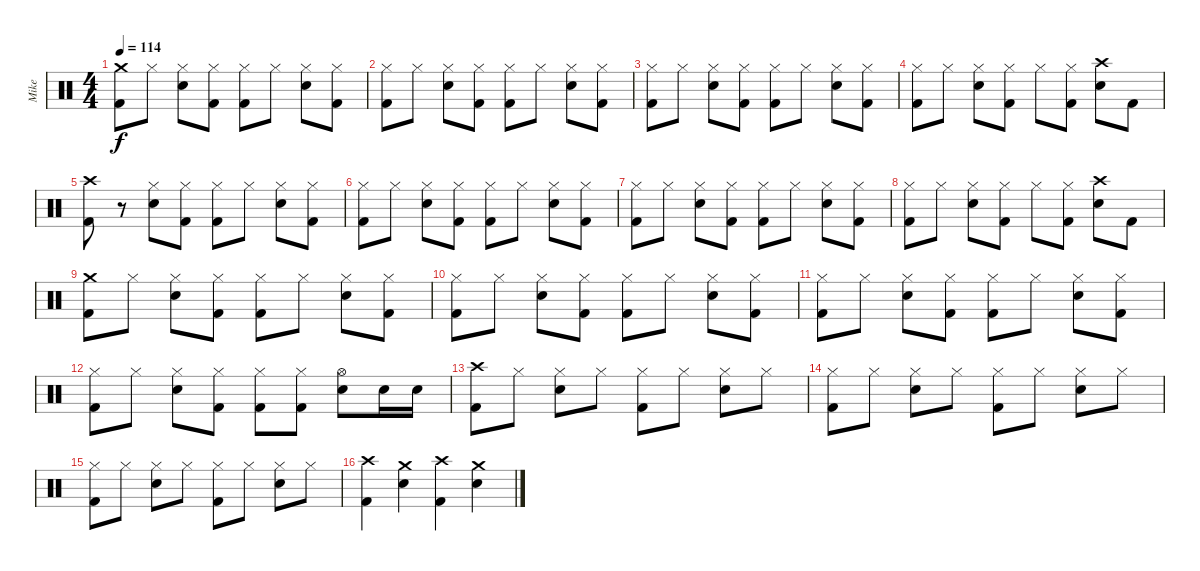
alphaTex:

\track ("Mike" "Mike") {instrument percussion}
\staff {score}
\articulation defaults
\ts (4 4)
\tempo 114
\clef neutral
\ks c
("Crash medium (hit)" "Kick (hit) 2").8{dy f} "Hi-Hat (closed)".8 ("Hi-Hat (closed)" "Electric Snare (hit)").8 ("Hi-Hat (closed)" "Kick (hit) 2").8 ("Hi-Hat (closed)" "Kick (hit) 2").8 "Hi-Hat (closed)".8 ("Hi-Hat (closed)" "Electric Snare (hit)").8 ("Hi-Hat (closed)" "Kick (hit) 2").8 |
("Hi-Hat (closed)" "Kick (hit) 2").8 "Hi-Hat (closed)".8 ("Hi-Hat (closed)" "Electric Snare (hit)").8 ("Hi-Hat (closed)" "Kick (hit) 2").8 ("Hi-Hat (closed)" "Kick (hit) 2").8 "Hi-Hat (closed)".8 ("Hi-Hat (closed)" "Electric Snare (hit)").8 ("Hi-Hat (closed)" "Kick (hit) 2").8 |
("Hi-Hat (closed)" "Kick (hit) 2").8 "Hi-Hat (closed)".8 ("Hi-Hat (closed)" "Electric Snare (hit)").8 ("Hi-Hat (closed)" "Kick (hit) 2").8 ("Hi-Hat (closed)" "Kick (hit) 2").8 "Hi-Hat (closed)".8 ("Hi-Hat (closed)" "Electric Snare (hit)").8 ("Hi-Hat (closed)" "Kick (hit) 2").8 |
("Hi-Hat (closed)" "Kick (hit) 2").8 "Hi-Hat (closed)".8 ("Hi-Hat (closed)" "Electric Snare (hit)").8 ("Hi-Hat (closed)" "Kick (hit) 2").8 "Hi-Hat (closed)".8 ("Hi-Hat (closed)" "Kick (hit) 2").8 ("Crash high (hit)" "Electric Snare (hit)").8 "Kick (hit) 2".8 |
("Crash high (hit)" "Kick (hit) 2").8 r.8 ("Hi-Hat (closed)" "Electric Snare (hit)").8 ("Hi-Hat (closed)" "Kick (hit) 2").8 ("Hi-Hat (closed)" "Kick (hit) 2").8 "Hi-Hat (closed)".8 ("Hi-Hat (closed)" "Electric Snare (hit)").8 ("Hi-Hat (closed)" "Kick (hit) 2").8 |
("Hi-Hat (closed)" "Kick (hit) 2").8 "Hi-Hat (closed)".8 ("Hi-Hat (closed)" "Electric Snare (hit)").8 ("Hi-Hat (closed)" "Kick (hit) 2").8 ("Hi-Hat (closed)" "Kick (hit) 2").8 "Hi-Hat (closed)".8 ("Hi-Hat (closed)" "Electric Snare (hit)").8 ("Hi-Hat (closed)" "Kick (hit) 2").8 |
("Hi-Hat (closed)" "Kick (hit) 2").8 "Hi-Hat (closed)".8 ("Hi-Hat (closed)" "Electric Snare (hit)").8 ("Hi-Hat (closed)" "Kick (hit) 2").8 ("Hi-Hat (closed)" "Kick (hit) 2").8 "Hi-Hat (closed)".8 ("Hi-Hat (closed)" "Electric Snare (hit)").8 ("Hi-Hat (closed)" "Kick (hit) 2").8 |
("Hi-Hat (closed)" "Kick (hit) 2").8 "Hi-Hat (closed)".8 ("Hi-Hat (closed)" "Electric Snare (hit)").8 ("Hi-Hat (closed)" "Kick (hit) 2").8 "Hi-Hat (closed)".8 ("Hi-Hat (closed)" "Kick (hit) 2").8 ("Crash high (hit)" "Electric Snare (hit)").8 "Kick (hit) 2".8 |
("Crash medium (hit)" "Kick (hit) 2").8 "Hi-Hat (closed)".8 ("Hi-Hat (closed)" "Electric Snare (hit)").8 ("Hi-Hat (closed)" "Kick (hit) 2").8 ("Hi-Hat (closed)" "Kick (hit) 2").8 "Hi-Hat (closed)".8 ("Hi-Hat (closed)" "Electric Snare (hit)").8 ("Hi-Hat (closed)" "Kick (hit) 2").8 |
("Hi-Hat (closed)" "Kick (hit) 2").8 "Hi-Hat (closed)".8 ("Hi-Hat (closed)" "Electric Snare (hit)").8 ("Hi-Hat (closed)" "Kick (hit) 2").8 ("Hi-Hat (closed)" "Kick (hit) 2").8 "Hi-Hat (closed)".8 ("Hi-Hat (closed)" "Electric Snare (hit)").8 ("Hi-Hat (closed)" "Kick (hit) 2").8 |
("Hi-Hat (closed)" "Kick (hit) 2").8 "Hi-Hat (closed)".8 ("Hi-Hat (closed)" "Electric Snare (hit)").8 ("Hi-Hat (closed)" "Kick (hit) 2").8 ("Hi-Hat (closed)" "Kick (hit) 2").8 "Hi-Hat (closed)".8 ("Hi-Hat (closed)" "Electric Snare (hit)").8 ("Hi-Hat (closed)" "Kick (hit) 2").8 |
("Hi-Hat (closed)" "Kick (hit) 2").8 "Hi-Hat (closed)".8 ("Hi-Hat (closed)" "Electric Snare (hit)").8 ("Hi-Hat (closed)" "Kick (hit) 2").8 ("Hi-Hat (closed)" "Kick (hit) 2").8 ("Hi-Hat (closed)" "Kick (hit) 2").8 ("Hi-Hat (open)" "Electric Snare (hit)").8 "Electric Snare (hit)".16 "Electric Snare (hit)".16 |
("Crash high (hit)" "Kick (hit) 2").8 "Hi-Hat (closed)".8 ("Hi-Hat (closed)" "Electric Snare (hit)").8 "Hi-Hat (closed)".8 ("Hi-Hat (closed)" "Kick (hit) 2").8 "Hi-Hat (closed)".8 ("Hi-Hat (closed)" "Electric Snare (hit)").8 "Hi-Hat (closed)".8 |
("Hi-Hat (closed)" "Kick (hit) 2").8 "Hi-Hat (closed)".8 ("Hi-Hat (closed)" "Electric Snare (hit)").8 "Hi-Hat (closed)".8 ("Hi-Hat (closed)" "Kick (hit) 2").8 "Hi-Hat (closed)".8 ("Hi-Hat (closed)" "Electric Snare (hit)").8 "Hi-Hat (closed)".8 |
("Hi-Hat (closed)" "Kick (hit) 2").8 "Hi-Hat (closed)".8 ("Hi-Hat (closed)" "Electric Snare (hit)").8 "Hi-Hat (closed)".8 ("Hi-Hat (closed)" "Kick (hit) 2").8 "Hi-Hat (closed)".8 ("Hi-Hat (closed)" "Electric Snare (hit)").8 "Hi-Hat (closed)".8 |
("Crash high (hit)" "Kick (hit) 2").4 ("Crash medium (hit)" "Electric Snare (hit)").4 ("Crash high (hit)" "Kick (hit) 2").4 ("Crash medium (hit)" "Electric Snare (hit)").4
